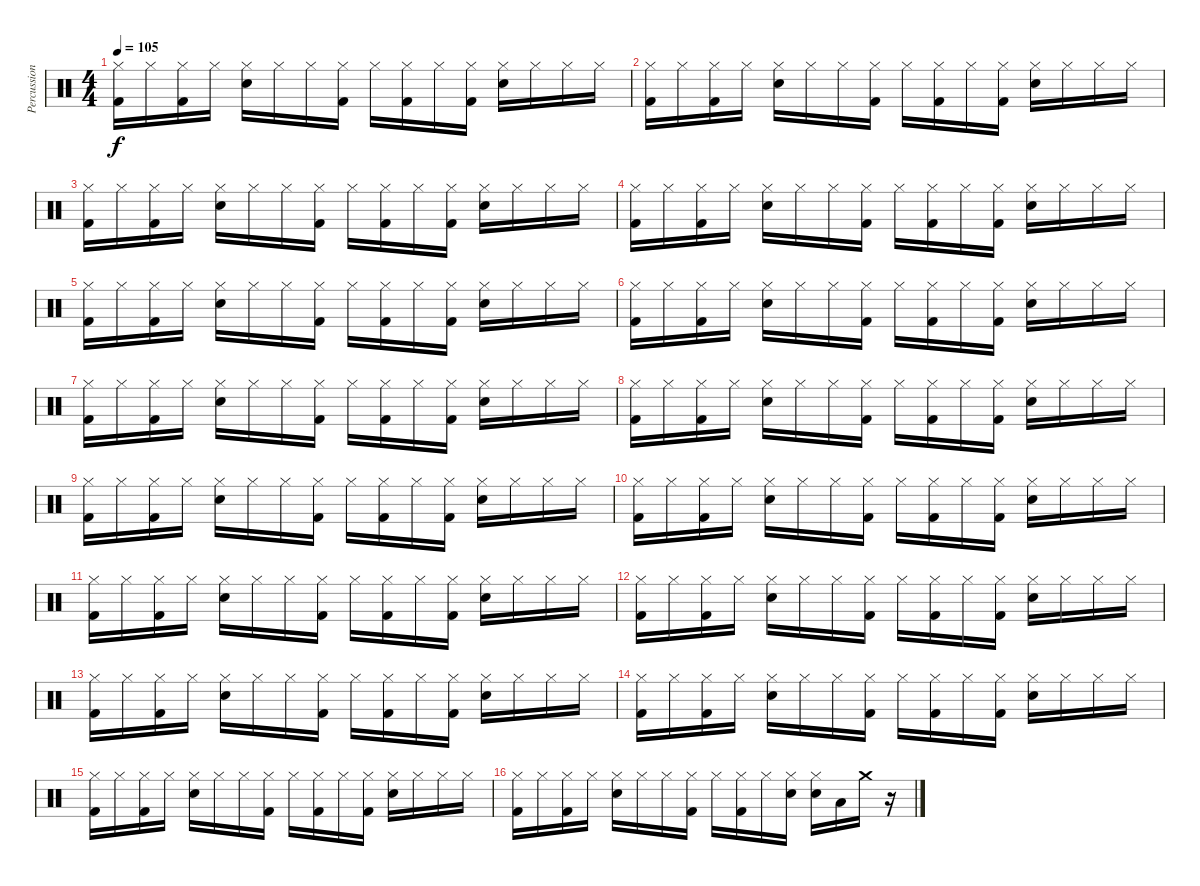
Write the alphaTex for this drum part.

\track ("Percussion" "Percussion") {instrument percussion}
\staff {score}
\articulation defaults
\ts (4 4)
\tempo 105
\clef neutral
\ks c
("Kick (hit) 2" "Hi-Hat (closed)").16{dy f} "Hi-Hat (closed)".16 ("Kick (hit) 2" "Hi-Hat (closed)").16 "Hi-Hat (closed)".16 ("Snare (hit) 2" "Hi-Hat (closed)").16 "Hi-Hat (closed)".16 "Hi-Hat (closed)".16 ("Kick (hit) 2" "Hi-Hat (closed)").16 "Hi-Hat (closed)".16 ("Kick (hit) 2" "Hi-Hat (closed)").16 "Hi-Hat (closed)".16 ("Kick (hit) 2" "Hi-Hat (closed)").16 ("Snare (hit) 2" "Hi-Hat (closed)").16 "Hi-Hat (closed)".16 "Hi-Hat (closed)".16 "Hi-Hat (closed)".16 |
("Kick (hit) 2" "Hi-Hat (closed)").16 "Hi-Hat (closed)".16 ("Kick (hit) 2" "Hi-Hat (closed)").16 "Hi-Hat (closed)".16 ("Snare (hit) 2" "Hi-Hat (closed)").16 "Hi-Hat (closed)".16 "Hi-Hat (closed)".16 ("Kick (hit) 2" "Hi-Hat (closed)").16 "Hi-Hat (closed)".16 ("Kick (hit) 2" "Hi-Hat (closed)").16 "Hi-Hat (closed)".16 ("Kick (hit) 2" "Hi-Hat (closed)").16 ("Snare (hit) 2" "Hi-Hat (closed)").16 "Hi-Hat (closed)".16 "Hi-Hat (closed)".16 "Hi-Hat (closed)".16 |
("Kick (hit) 2" "Hi-Hat (closed)").16 "Hi-Hat (closed)".16 ("Kick (hit) 2" "Hi-Hat (closed)").16 "Hi-Hat (closed)".16 ("Snare (hit) 2" "Hi-Hat (closed)").16 "Hi-Hat (closed)".16 "Hi-Hat (closed)".16 ("Kick (hit) 2" "Hi-Hat (closed)").16 "Hi-Hat (closed)".16 ("Kick (hit) 2" "Hi-Hat (closed)").16 "Hi-Hat (closed)".16 ("Kick (hit) 2" "Hi-Hat (closed)").16 ("Snare (hit) 2" "Hi-Hat (closed)").16 "Hi-Hat (closed)".16 "Hi-Hat (closed)".16 "Hi-Hat (closed)".16 |
("Kick (hit) 2" "Hi-Hat (closed)").16 "Hi-Hat (closed)".16 ("Kick (hit) 2" "Hi-Hat (closed)").16 "Hi-Hat (closed)".16 ("Snare (hit) 2" "Hi-Hat (closed)").16 "Hi-Hat (closed)".16 "Hi-Hat (closed)".16 ("Kick (hit) 2" "Hi-Hat (closed)").16 "Hi-Hat (closed)".16 ("Kick (hit) 2" "Hi-Hat (closed)").16 "Hi-Hat (closed)".16 ("Kick (hit) 2" "Hi-Hat (closed)").16 ("Snare (hit) 2" "Hi-Hat (closed)").16 "Hi-Hat (closed)".16 "Hi-Hat (closed)".16 "Hi-Hat (closed)".16 |
("Kick (hit) 2" "Hi-Hat (closed)").16 "Hi-Hat (closed)".16 ("Kick (hit) 2" "Hi-Hat (closed)").16 "Hi-Hat (closed)".16 ("Snare (hit) 2" "Hi-Hat (closed)").16 "Hi-Hat (closed)".16 "Hi-Hat (closed)".16 ("Kick (hit) 2" "Hi-Hat (closed)").16 "Hi-Hat (closed)".16 ("Kick (hit) 2" "Hi-Hat (closed)").16 "Hi-Hat (closed)".16 ("Kick (hit) 2" "Hi-Hat (closed)").16 ("Snare (hit) 2" "Hi-Hat (closed)").16 "Hi-Hat (closed)".16 "Hi-Hat (closed)".16 "Hi-Hat (closed)".16 |
("Kick (hit) 2" "Hi-Hat (closed)").16 "Hi-Hat (closed)".16 ("Kick (hit) 2" "Hi-Hat (closed)").16 "Hi-Hat (closed)".16 ("Snare (hit) 2" "Hi-Hat (closed)").16 "Hi-Hat (closed)".16 "Hi-Hat (closed)".16 ("Kick (hit) 2" "Hi-Hat (closed)").16 "Hi-Hat (closed)".16 ("Kick (hit) 2" "Hi-Hat (closed)").16 "Hi-Hat (closed)".16 ("Kick (hit) 2" "Hi-Hat (closed)").16 ("Snare (hit) 2" "Hi-Hat (closed)").16 "Hi-Hat (closed)".16 "Hi-Hat (closed)".16 "Hi-Hat (closed)".16 |
("Kick (hit) 2" "Hi-Hat (closed)").16 "Hi-Hat (closed)".16 ("Kick (hit) 2" "Hi-Hat (closed)").16 "Hi-Hat (closed)".16 ("Snare (hit) 2" "Hi-Hat (closed)").16 "Hi-Hat (closed)".16 "Hi-Hat (closed)".16 ("Kick (hit) 2" "Hi-Hat (closed)").16 "Hi-Hat (closed)".16 ("Kick (hit) 2" "Hi-Hat (closed)").16 "Hi-Hat (closed)".16 ("Kick (hit) 2" "Hi-Hat (closed)").16 ("Snare (hit) 2" "Hi-Hat (closed)").16 "Hi-Hat (closed)".16 "Hi-Hat (closed)".16 "Hi-Hat (closed)".16 |
("Kick (hit) 2" "Hi-Hat (closed)").16 "Hi-Hat (closed)".16 ("Kick (hit) 2" "Hi-Hat (closed)").16 "Hi-Hat (closed)".16 ("Snare (hit) 2" "Hi-Hat (closed)").16 "Hi-Hat (closed)".16 "Hi-Hat (closed)".16 ("Kick (hit) 2" "Hi-Hat (closed)").16 "Hi-Hat (closed)".16 ("Kick (hit) 2" "Hi-Hat (closed)").16 "Hi-Hat (closed)".16 ("Kick (hit) 2" "Hi-Hat (closed)").16 ("Snare (hit) 2" "Hi-Hat (closed)").16 "Hi-Hat (closed)".16 "Hi-Hat (closed)".16 "Hi-Hat (closed)".16 |
("Kick (hit) 2" "Hi-Hat (closed)").16 "Hi-Hat (closed)".16 ("Kick (hit) 2" "Hi-Hat (closed)").16 "Hi-Hat (closed)".16 ("Snare (hit) 2" "Hi-Hat (closed)").16 "Hi-Hat (closed)".16 "Hi-Hat (closed)".16 ("Kick (hit) 2" "Hi-Hat (closed)").16 "Hi-Hat (closed)".16 ("Kick (hit) 2" "Hi-Hat (closed)").16 "Hi-Hat (closed)".16 ("Kick (hit) 2" "Hi-Hat (closed)").16 ("Snare (hit) 2" "Hi-Hat (closed)").16 "Hi-Hat (closed)".16 "Hi-Hat (closed)".16 "Hi-Hat (closed)".16 |
("Kick (hit) 2" "Hi-Hat (closed)").16 "Hi-Hat (closed)".16 ("Kick (hit) 2" "Hi-Hat (closed)").16 "Hi-Hat (closed)".16 ("Snare (hit) 2" "Hi-Hat (closed)").16 "Hi-Hat (closed)".16 "Hi-Hat (closed)".16 ("Kick (hit) 2" "Hi-Hat (closed)").16 "Hi-Hat (closed)".16 ("Kick (hit) 2" "Hi-Hat (closed)").16 "Hi-Hat (closed)".16 ("Kick (hit) 2" "Hi-Hat (closed)").16 ("Snare (hit) 2" "Hi-Hat (closed)").16 "Hi-Hat (closed)".16 "Hi-Hat (closed)".16 "Hi-Hat (closed)".16 |
("Kick (hit) 2" "Hi-Hat (closed)").16 "Hi-Hat (closed)".16 ("Kick (hit) 2" "Hi-Hat (closed)").16 "Hi-Hat (closed)".16 ("Snare (hit) 2" "Hi-Hat (closed)").16 "Hi-Hat (closed)".16 "Hi-Hat (closed)".16 ("Kick (hit) 2" "Hi-Hat (closed)").16 "Hi-Hat (closed)".16 ("Kick (hit) 2" "Hi-Hat (closed)").16 "Hi-Hat (closed)".16 ("Kick (hit) 2" "Hi-Hat (closed)").16 ("Snare (hit) 2" "Hi-Hat (closed)").16 "Hi-Hat (closed)".16 "Hi-Hat (closed)".16 "Hi-Hat (closed)".16 |
("Kick (hit) 2" "Hi-Hat (closed)").16 "Hi-Hat (closed)".16 ("Kick (hit) 2" "Hi-Hat (closed)").16 "Hi-Hat (closed)".16 ("Snare (hit) 2" "Hi-Hat (closed)").16 "Hi-Hat (closed)".16 "Hi-Hat (closed)".16 ("Kick (hit) 2" "Hi-Hat (closed)").16 "Hi-Hat (closed)".16 ("Kick (hit) 2" "Hi-Hat (closed)").16 "Hi-Hat (closed)".16 ("Kick (hit) 2" "Hi-Hat (closed)").16 ("Snare (hit) 2" "Hi-Hat (closed)").16 "Hi-Hat (closed)".16 "Hi-Hat (closed)".16 "Hi-Hat (closed)".16 |
("Kick (hit) 2" "Hi-Hat (closed)").16 "Hi-Hat (closed)".16 ("Kick (hit) 2" "Hi-Hat (closed)").16 "Hi-Hat (closed)".16 ("Snare (hit) 2" "Hi-Hat (closed)").16 "Hi-Hat (closed)".16 "Hi-Hat (closed)".16 ("Kick (hit) 2" "Hi-Hat (closed)").16 "Hi-Hat (closed)".16 ("Kick (hit) 2" "Hi-Hat (closed)").16 "Hi-Hat (closed)".16 ("Kick (hit) 2" "Hi-Hat (closed)").16 ("Snare (hit) 2" "Hi-Hat (closed)").16 "Hi-Hat (closed)".16 "Hi-Hat (closed)".16 "Hi-Hat (closed)".16 |
("Kick (hit) 2" "Hi-Hat (closed)").16 "Hi-Hat (closed)".16 ("Kick (hit) 2" "Hi-Hat (closed)").16 "Hi-Hat (closed)".16 ("Snare (hit) 2" "Hi-Hat (closed)").16 "Hi-Hat (closed)".16 "Hi-Hat (closed)".16 ("Kick (hit) 2" "Hi-Hat (closed)").16 "Hi-Hat (closed)".16 ("Kick (hit) 2" "Hi-Hat (closed)").16 "Hi-Hat (closed)".16 ("Kick (hit) 2" "Hi-Hat (closed)").16 ("Snare (hit) 2" "Hi-Hat (closed)").16 "Hi-Hat (closed)".16 "Hi-Hat (closed)".16 "Hi-Hat (closed)".16 |
("Kick (hit) 2" "Hi-Hat (closed)").16 "Hi-Hat (closed)".16 ("Kick (hit) 2" "Hi-Hat (closed)").16 "Hi-Hat (closed)".16 ("Snare (hit) 2" "Hi-Hat (closed)").16 "Hi-Hat (closed)".16 "Hi-Hat (closed)".16 ("Kick (hit) 2" "Hi-Hat (closed)").16 "Hi-Hat (closed)".16 ("Kick (hit) 2" "Hi-Hat (closed)").16 "Hi-Hat (closed)".16 ("Kick (hit) 2" "Hi-Hat (closed)").16 ("Snare (hit) 2" "Hi-Hat (closed)").16 "Hi-Hat (closed)".16 "Hi-Hat (closed)".16 "Hi-Hat (closed)".16 |
("Kick (hit) 2" "Hi-Hat (closed)").16 "Hi-Hat (closed)".16 ("Kick (hit) 2" "Hi-Hat (closed)").16 "Hi-Hat (closed)".16 ("Snare (hit) 2" "Hi-Hat (closed)").16 "Hi-Hat (closed)".16 "Hi-Hat (closed)".16 ("Kick (hit) 2" "Hi-Hat (closed)").16 "Hi-Hat (closed)".16 ("Kick (hit) 2" "Hi-Hat (closed)").16 "Hi-Hat (closed)".16 ("Snare (hit) 2" "Hi-Hat (closed)").16 ("Snare (hit) 2" "Hi-Hat (closed)").16 "Low Tom (hit)".16 "Crash medium (hit)".16 r.16
